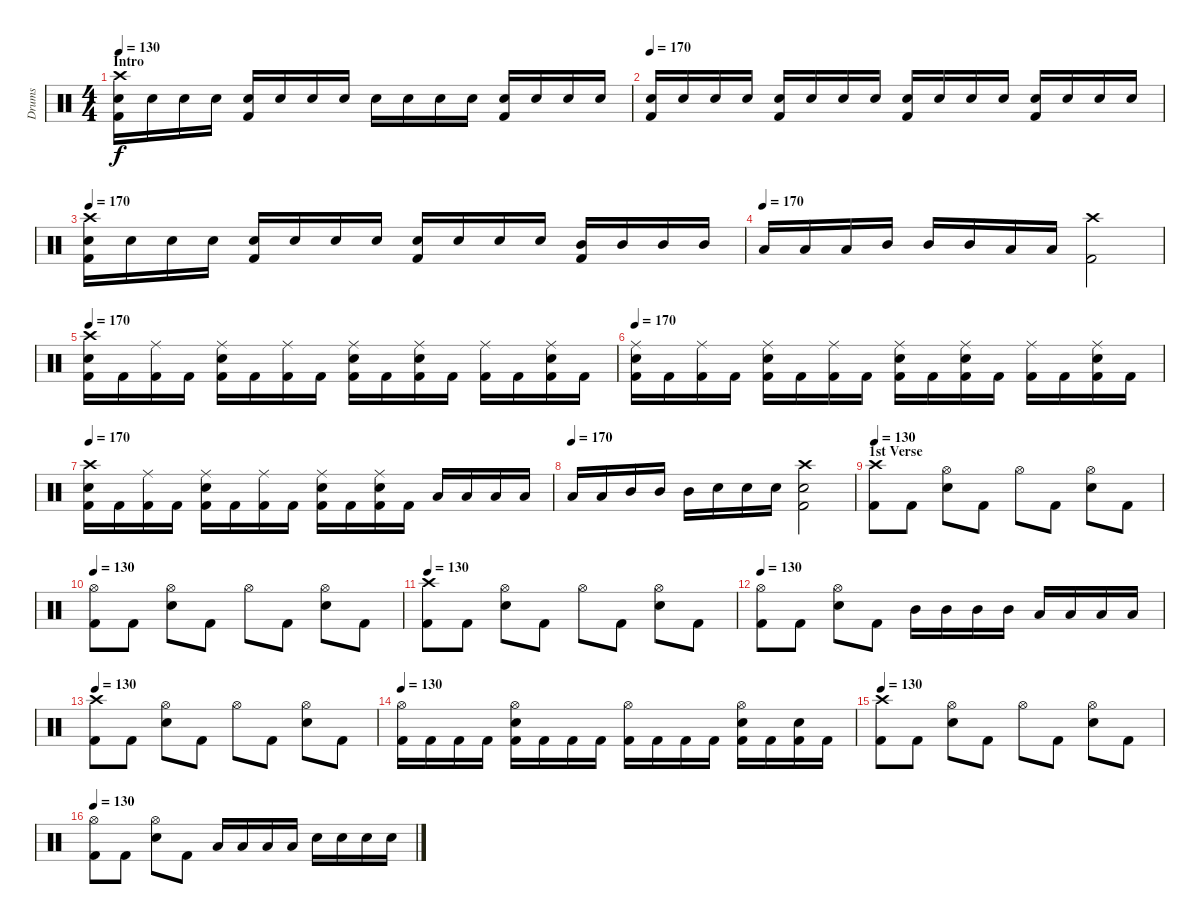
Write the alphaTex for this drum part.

\track ("Drums" "Drums") {instrument percussion}
\staff {score}
\articulation defaults
\ts (4 4)
\section ("" "Intro")
\tempo 130
\tempo 170
\tempo 130
\clef neutral
\ks c
("Crash high (hit)" "Snare (hit) 2" "Kick (hit) 2").16{dy f} "Snare (hit) 2".16 "Snare (hit) 2".16 "Snare (hit) 2".16 ("Snare (hit) 2" "Kick (hit) 2").16 "Snare (hit) 2".16 "Snare (hit) 2".16 "Snare (hit) 2".16 "Snare (hit) 2".16 "Snare (hit) 2".16 "Snare (hit) 2".16 "Snare (hit) 2".16 ("Snare (hit) 2" "Kick (hit) 2").16 "Snare (hit) 2".16 "Snare (hit) 2".16 "Snare (hit) 2".16 |
\tempo 170
("Snare (hit) 2" "Kick (hit) 2").16 "Snare (hit) 2".16 "Snare (hit) 2".16 "Snare (hit) 2".16 ("Snare (hit) 2" "Kick (hit) 2").16 "Snare (hit) 2".16 "Snare (hit) 2".16 "Snare (hit) 2".16 ("Snare (hit) 2" "Kick (hit) 2").16 "Snare (hit) 2".16 "Snare (hit) 2".16 "Snare (hit) 2".16 ("Snare (hit) 2" "Kick (hit) 2").16 "Snare (hit) 2".16 "Snare (hit) 2".16 "Snare (hit) 2".16 |
\tempo 170
("Crash high (hit)" "Snare (hit) 2" "Kick (hit) 2").16 "Snare (hit) 2".16 "Snare (hit) 2".16 "Snare (hit) 2".16 ("Snare (hit) 2" "Kick (hit) 2").16 "Snare (hit) 2".16 "Snare (hit) 2".16 "Snare (hit) 2".16 ("Snare (hit) 2" "Kick (hit) 2").16 "Snare (hit) 2".16 "Snare (hit) 2".16 "Snare (hit) 2".16 ("Mid Tom (hit)" "Kick (hit) 2").16 "Mid Tom (hit)".16 "Mid Tom (hit)".16 "Mid Tom (hit)".16 |
\tempo (170)
"Low Tom (hit)".16 "Low Tom (hit)".16 "Low Tom (hit)".16 "Mid Tom (hit)".16 "Mid Tom (hit)".16 "Mid Tom (hit)".16 "Low Floor Tom (hit)".16 "Low Floor Tom (hit)".16 ("Crash high (hit)" "Kick (hit) 2").2 |
\tempo 170
("Crash high (hit)" "Snare (hit) 2" "Kick (hit) 2").16 "Kick (hit) 2".16 ("Ride (middle)" "Kick (hit) 2").16 "Kick (hit) 2".16 ("Ride (middle)" "Snare (hit) 2" "Kick (hit) 2").16 "Kick (hit) 2".16 ("Ride (middle)" "Kick (hit) 2").16 "Kick (hit) 2".16 ("Ride (middle)" "Snare (hit) 2" "Kick (hit) 2").16 "Kick (hit) 2".16 ("Ride (middle)" "Snare (hit) 2" "Kick (hit) 2").16 "Kick (hit) 2".16 ("Ride (middle)" "Kick (hit) 2").16 "Kick (hit) 2".16 ("Ride (middle)" "Snare (hit) 2" "Kick (hit) 2").16 "Kick (hit) 2".16 |
\tempo 170
("Ride (middle)" "Snare (hit) 2" "Kick (hit) 2").16 "Kick (hit) 2".16 ("Ride (middle)" "Kick (hit) 2").16 "Kick (hit) 2".16 ("Ride (middle)" "Snare (hit) 2" "Kick (hit) 2").16 "Kick (hit) 2".16 ("Ride (middle)" "Kick (hit) 2").16 "Kick (hit) 2".16 ("Ride (middle)" "Snare (hit) 2" "Kick (hit) 2").16 "Kick (hit) 2".16 ("Ride (middle)" "Snare (hit) 2" "Kick (hit) 2").16 "Kick (hit) 2".16 ("Ride (middle)" "Kick (hit) 2").16 "Kick (hit) 2".16 ("Ride (middle)" "Snare (hit) 2" "Kick (hit) 2").16 "Kick (hit) 2".16 |
\tempo 170
("Crash high (hit)" "Snare (hit) 2" "Kick (hit) 2").16 "Kick (hit) 2".16 ("Ride (middle)" "Kick (hit) 2").16 "Kick (hit) 2".16 ("Ride (middle)" "Snare (hit) 2" "Kick (hit) 2").16 "Kick (hit) 2".16 ("Ride (middle)" "Kick (hit) 2").16 "Kick (hit) 2".16 ("Ride (middle)" "Snare (hit) 2" "Kick (hit) 2").16 "Kick (hit) 2".16 ("Ride (middle)" "Snare (hit) 2" "Kick (hit) 2").16 "Kick (hit) 2".16 "Low Floor Tom (hit)".16 "Low Floor Tom (hit)".16 "Low Floor Tom (hit)".16 "Low Tom (hit)".16 |
\tempo (170)
"Low Tom (hit)".16 "Low Tom (hit)".16 "Mid Tom (hit)".16 "Mid Tom (hit)".16 "Mid Tom (hit)".16 "Snare (hit) 2".16 "Snare (hit) 2".16 "Snare (hit) 2".16 ("Crash high (hit)" "Snare (hit) 2" "Kick (hit) 2").2 |
\section ("" "1st Verse")
\tempo 130
("Crash high (hit)" "Kick (hit) 2").8 "Kick (hit) 2".8 ("Hi-Hat (open)" "Snare (hit) 2").8 "Kick (hit) 2".8 "Hi-Hat (open)".8 "Kick (hit) 2".8 ("Hi-Hat (open)" "Snare (hit) 2").8 "Kick (hit) 2".8 |
\tempo 130
("Hi-Hat (open)" "Kick (hit) 2").8 "Kick (hit) 2".8 ("Hi-Hat (open)" "Snare (hit) 2").8 "Kick (hit) 2".8 "Hi-Hat (open)".8 "Kick (hit) 2".8 ("Hi-Hat (open)" "Snare (hit) 2").8 "Kick (hit) 2".8 |
\tempo 130
("Crash high (hit)" "Kick (hit) 2").8 "Kick (hit) 2".8 ("Hi-Hat (open)" "Snare (hit) 2").8 "Kick (hit) 2".8 "Hi-Hat (open)".8 "Kick (hit) 2".8 ("Hi-Hat (open)" "Snare (hit) 2").8 "Kick (hit) 2".8 |
\tempo 130
("Hi-Hat (open)" "Kick (hit) 2").8 "Kick (hit) 2".8 ("Hi-Hat (open)" "Snare (hit) 2").8 "Kick (hit) 2".8 "Mid Tom (hit)".16 "Mid Tom (hit)".16 "Mid Tom (hit)".16 "Mid Tom (hit)".16 "Low Tom (hit)".16 "Low Tom (hit)".16 "Low Tom (hit)".16 "Low Tom (hit)".16 |
\tempo 130
("Crash high (hit)" "Kick (hit) 2").8 "Kick (hit) 2".8 ("Hi-Hat (open)" "Snare (hit) 2").8 "Kick (hit) 2".8 "Hi-Hat (open)".8 "Kick (hit) 2".8 ("Hi-Hat (open)" "Snare (hit) 2").8 "Kick (hit) 2".8 |
\tempo 130
("Hi-Hat (open)" "Kick (hit) 2").16 "Kick (hit) 2".16 "Kick (hit) 2".16 "Kick (hit) 2".16 ("Hi-Hat (open)" "Snare (hit) 2" "Kick (hit) 2").16 "Kick (hit) 2".16 "Kick (hit) 2".16 "Kick (hit) 2".16 ("Hi-Hat (open)" "Kick (hit) 2").16 "Kick (hit) 2".16 "Kick (hit) 2".16 "Kick (hit) 2".16 ("Hi-Hat (open)" "Snare (hit) 2" "Kick (hit) 2").16 "Kick (hit) 2".16 ("Snare (hit) 2" "Kick (hit) 2").16 "Kick (hit) 2".16 |
\tempo 130
("Crash high (hit)" "Kick (hit) 2").8 "Kick (hit) 2".8 ("Hi-Hat (open)" "Snare (hit) 2").8 "Kick (hit) 2".8 "Hi-Hat (open)".8 "Kick (hit) 2".8 ("Hi-Hat (open)" "Snare (hit) 2").8 "Kick (hit) 2".8 |
\tempo 130
("Hi-Hat (open)" "Kick (hit) 2").8 "Kick (hit) 2".8 ("Hi-Hat (open)" "Snare (hit) 2").8 "Kick (hit) 2".8 "Low Tom (hit)".16 "Low Tom (hit)".16 "Low Tom (hit)".16 "Low Tom (hit)".16 "Snare (hit) 2".16 "Snare (hit) 2".16 "Snare (hit) 2".16 "Snare (hit) 2".16
